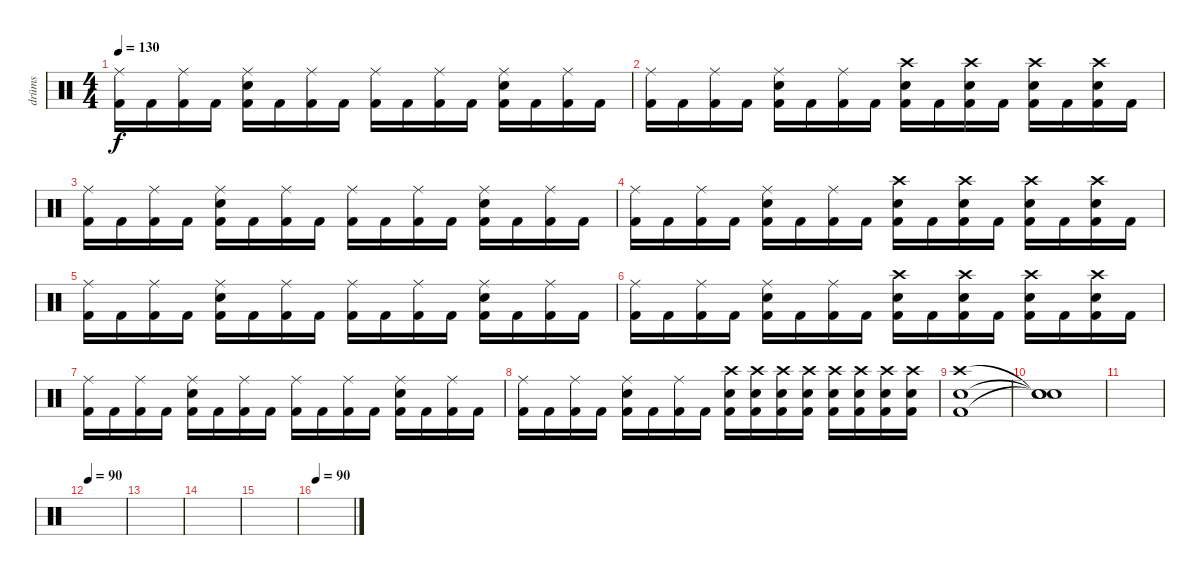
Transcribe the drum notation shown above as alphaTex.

\track ("drüms" "drüms") {instrument percussion}
\staff {score}
\articulation defaults
\ts (4 4)
\tempo 130
\clef neutral
\ks c
("Ride (middle)" "Kick (hit) 2").16{dy f} "Kick (hit) 2".16 ("Ride (middle)" "Kick (hit) 2").16 "Kick (hit) 2".16 ("Electric Snare (hit)" "Ride (middle)" "Kick (hit) 2").16 "Kick (hit) 2".16 ("Ride (middle)" "Kick (hit) 2").16 "Kick (hit) 2".16 ("Ride (middle)" "Kick (hit) 2").16 "Kick (hit) 2".16 ("Ride (middle)" "Kick (hit) 2").16 "Kick (hit) 2".16 ("Electric Snare (hit)" "Ride (middle)" "Kick (hit) 2").16 "Kick (hit) 2".16 ("Ride (middle)" "Kick (hit) 2").16 "Kick (hit) 2".16 |
("Ride (middle)" "Kick (hit) 2").16 "Kick (hit) 2".16 ("Ride (middle)" "Kick (hit) 2").16 "Kick (hit) 2".16 ("Electric Snare (hit)" "Ride (middle)" "Kick (hit) 2").16 "Kick (hit) 2".16 ("Ride (middle)" "Kick (hit) 2").16 "Kick (hit) 2".16 ("Electric Snare (hit)" "Crash high (hit)" "Kick (hit) 2").16 "Kick (hit) 2".16 ("Electric Snare (hit)" "Crash high (hit)" "Kick (hit) 2").16 "Kick (hit) 2".16 ("Electric Snare (hit)" "Crash high (hit)" "Kick (hit) 2").16 "Kick (hit) 2".16 ("Electric Snare (hit)" "Crash high (hit)" "Kick (hit) 2").16 "Kick (hit) 2".16 |
("Ride (middle)" "Kick (hit) 2").16 "Kick (hit) 2".16 ("Ride (middle)" "Kick (hit) 2").16 "Kick (hit) 2".16 ("Electric Snare (hit)" "Ride (middle)" "Kick (hit) 2").16 "Kick (hit) 2".16 ("Ride (middle)" "Kick (hit) 2").16 "Kick (hit) 2".16 ("Ride (middle)" "Kick (hit) 2").16 "Kick (hit) 2".16 ("Ride (middle)" "Kick (hit) 2").16 "Kick (hit) 2".16 ("Electric Snare (hit)" "Ride (middle)" "Kick (hit) 2").16 "Kick (hit) 2".16 ("Ride (middle)" "Kick (hit) 2").16 "Kick (hit) 2".16 |
("Ride (middle)" "Kick (hit) 2").16 "Kick (hit) 2".16 ("Ride (middle)" "Kick (hit) 2").16 "Kick (hit) 2".16 ("Electric Snare (hit)" "Ride (middle)" "Kick (hit) 2").16 "Kick (hit) 2".16 ("Ride (middle)" "Kick (hit) 2").16 "Kick (hit) 2".16 ("Electric Snare (hit)" "Crash high (hit)" "Kick (hit) 2").16 "Kick (hit) 2".16 ("Electric Snare (hit)" "Crash high (hit)" "Kick (hit) 2").16 "Kick (hit) 2".16 ("Electric Snare (hit)" "Crash high (hit)" "Kick (hit) 2").16 "Kick (hit) 2".16 ("Electric Snare (hit)" "Crash high (hit)" "Kick (hit) 2").16 "Kick (hit) 2".16 |
("Ride (middle)" "Kick (hit) 2").16 "Kick (hit) 2".16 ("Ride (middle)" "Kick (hit) 2").16 "Kick (hit) 2".16 ("Electric Snare (hit)" "Ride (middle)" "Kick (hit) 2").16 "Kick (hit) 2".16 ("Ride (middle)" "Kick (hit) 2").16 "Kick (hit) 2".16 ("Ride (middle)" "Kick (hit) 2").16 "Kick (hit) 2".16 ("Ride (middle)" "Kick (hit) 2").16 "Kick (hit) 2".16 ("Electric Snare (hit)" "Ride (middle)" "Kick (hit) 2").16 "Kick (hit) 2".16 ("Ride (middle)" "Kick (hit) 2").16 "Kick (hit) 2".16 |
("Ride (middle)" "Kick (hit) 2").16 "Kick (hit) 2".16 ("Ride (middle)" "Kick (hit) 2").16 "Kick (hit) 2".16 ("Electric Snare (hit)" "Ride (middle)" "Kick (hit) 2").16 "Kick (hit) 2".16 ("Ride (middle)" "Kick (hit) 2").16 "Kick (hit) 2".16 ("Electric Snare (hit)" "Crash high (hit)" "Kick (hit) 2").16 "Kick (hit) 2".16 ("Electric Snare (hit)" "Crash high (hit)" "Kick (hit) 2").16 "Kick (hit) 2".16 ("Electric Snare (hit)" "Crash high (hit)" "Kick (hit) 2").16 "Kick (hit) 2".16 ("Electric Snare (hit)" "Crash high (hit)" "Kick (hit) 2").16 "Kick (hit) 2".16 |
("Ride (middle)" "Kick (hit) 2").16 "Kick (hit) 2".16 ("Ride (middle)" "Kick (hit) 2").16 "Kick (hit) 2".16 ("Electric Snare (hit)" "Ride (middle)" "Kick (hit) 2").16 "Kick (hit) 2".16 ("Ride (middle)" "Kick (hit) 2").16 "Kick (hit) 2".16 ("Ride (middle)" "Kick (hit) 2").16 "Kick (hit) 2".16 ("Ride (middle)" "Kick (hit) 2").16 "Kick (hit) 2".16 ("Electric Snare (hit)" "Ride (middle)" "Kick (hit) 2").16 "Kick (hit) 2".16 ("Ride (middle)" "Kick (hit) 2").16 "Kick (hit) 2".16 |
("Ride (middle)" "Kick (hit) 2").16 "Kick (hit) 2".16 ("Ride (middle)" "Kick (hit) 2").16 "Kick (hit) 2".16 ("Electric Snare (hit)" "Ride (middle)" "Kick (hit) 2").16 "Kick (hit) 2".16 ("Ride (middle)" "Kick (hit) 2").16 "Kick (hit) 2".16 ("Electric Snare (hit)" "Crash high (hit)" "Kick (hit) 2").16 ("Electric Snare (hit)" "Crash high (hit)" "Kick (hit) 2").16 ("Electric Snare (hit)" "Crash high (hit)" "Kick (hit) 2").16 ("Electric Snare (hit)" "Crash high (hit)" "Kick (hit) 2").16 ("Electric Snare (hit)" "Crash high (hit)" "Kick (hit) 2").16 ("Electric Snare (hit)" "Crash high (hit)" "Kick (hit) 2").16 ("Electric Snare (hit)" "Crash high (hit)" "Kick (hit) 2").16 ("Electric Snare (hit)" "Crash high (hit)" "Kick (hit) 2").16 |
("Electric Snare (hit)" "Crash high (hit)" "Kick (hit) 2").1 |
("Snare (hit)"{t} "Snare (hit)"{t} "Snare (hit)"{t}).1 |
|
\tempo 90
|
|
|
|
\tempo 90
